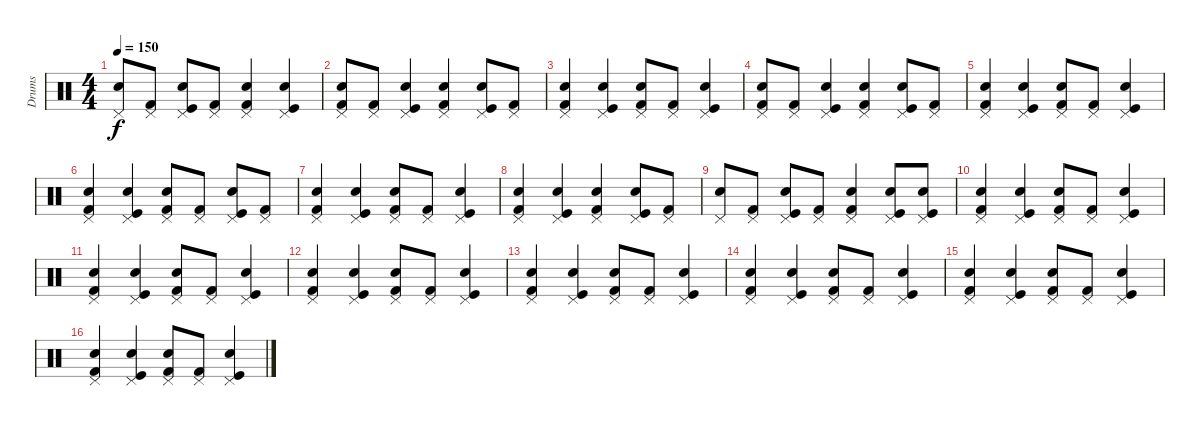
\track ("Drums" "Drums") {instrument percussion}
\staff {score}
\articulation defaults
\ts (4 4)
\tempo 150
\clef neutral
\ks c
("Electric Snare (hit)" "Pedal Hi-Hat (hit)").8{dy f} ("Kick (hit) 2" "Pedal Hi-Hat (hit)").8 ("Kick (hit)" "Electric Snare (hit)" "Pedal Hi-Hat (hit)").8 ("Kick (hit) 2" "Pedal Hi-Hat (hit)").8 ("Kick (hit) 2" "Electric Snare (hit)" "Pedal Hi-Hat (hit)").4 ("Kick (hit)" "Electric Snare (hit)" "Pedal Hi-Hat (hit)").4 |
("Kick (hit) 2" "Electric Snare (hit)" "Pedal Hi-Hat (hit)").8 ("Kick (hit) 2" "Pedal Hi-Hat (hit)").8 ("Kick (hit)" "Electric Snare (hit)" "Pedal Hi-Hat (hit)").4 ("Kick (hit) 2" "Electric Snare (hit)" "Pedal Hi-Hat (hit)").4 ("Kick (hit)" "Electric Snare (hit)" "Pedal Hi-Hat (hit)").8 ("Kick (hit) 2" "Pedal Hi-Hat (hit)").8 |
("Kick (hit) 2" "Electric Snare (hit)" "Pedal Hi-Hat (hit)").4 ("Kick (hit)" "Electric Snare (hit)" "Pedal Hi-Hat (hit)").4 ("Kick (hit) 2" "Electric Snare (hit)" "Pedal Hi-Hat (hit)").8 ("Kick (hit) 2" "Pedal Hi-Hat (hit)").8 ("Kick (hit)" "Electric Snare (hit)" "Pedal Hi-Hat (hit)").4 |
("Kick (hit) 2" "Electric Snare (hit)" "Pedal Hi-Hat (hit)").8 ("Kick (hit) 2" "Pedal Hi-Hat (hit)").8 ("Kick (hit)" "Electric Snare (hit)" "Pedal Hi-Hat (hit)").4 ("Kick (hit) 2" "Electric Snare (hit)" "Pedal Hi-Hat (hit)").4 ("Kick (hit)" "Electric Snare (hit)" "Pedal Hi-Hat (hit)").8 ("Kick (hit) 2" "Pedal Hi-Hat (hit)").8 |
("Kick (hit) 2" "Electric Snare (hit)" "Pedal Hi-Hat (hit)").4 ("Kick (hit)" "Electric Snare (hit)" "Pedal Hi-Hat (hit)").4 ("Kick (hit) 2" "Electric Snare (hit)" "Pedal Hi-Hat (hit)").8 ("Kick (hit) 2" "Pedal Hi-Hat (hit)").8 ("Kick (hit)" "Electric Snare (hit)" "Pedal Hi-Hat (hit)").4 |
("Kick (hit) 2" "Electric Snare (hit)" "Pedal Hi-Hat (hit)").4 ("Kick (hit)" "Electric Snare (hit)" "Pedal Hi-Hat (hit)").4 ("Kick (hit) 2" "Electric Snare (hit)" "Pedal Hi-Hat (hit)").8 ("Kick (hit) 2" "Pedal Hi-Hat (hit)").8 ("Kick (hit)" "Electric Snare (hit)" "Pedal Hi-Hat (hit)").8 ("Kick (hit) 2" "Pedal Hi-Hat (hit)").8 |
("Kick (hit) 2" "Electric Snare (hit)" "Pedal Hi-Hat (hit)").4 ("Kick (hit)" "Electric Snare (hit)" "Pedal Hi-Hat (hit)").4 ("Kick (hit) 2" "Electric Snare (hit)" "Pedal Hi-Hat (hit)").8 ("Kick (hit) 2" "Pedal Hi-Hat (hit)").8 ("Kick (hit)" "Electric Snare (hit)" "Pedal Hi-Hat (hit)").4 |
("Kick (hit) 2" "Electric Snare (hit)" "Pedal Hi-Hat (hit)").4 ("Kick (hit)" "Electric Snare (hit)" "Pedal Hi-Hat (hit)").4 ("Kick (hit) 2" "Electric Snare (hit)" "Pedal Hi-Hat (hit)").4 ("Kick (hit)" "Electric Snare (hit)" "Pedal Hi-Hat (hit)").8 ("Kick (hit) 2" "Pedal Hi-Hat (hit)").8 |
("Electric Snare (hit)" "Pedal Hi-Hat (hit)").8 ("Kick (hit) 2" "Pedal Hi-Hat (hit)").8 ("Kick (hit)" "Electric Snare (hit)" "Pedal Hi-Hat (hit)").8 ("Kick (hit) 2" "Pedal Hi-Hat (hit)").8 ("Kick (hit) 2" "Electric Snare (hit)" "Pedal Hi-Hat (hit)").4 ("Kick (hit)" "Electric Snare (hit)" "Pedal Hi-Hat (hit)").8 ("Kick (hit)" "Electric Snare (hit)" "Pedal Hi-Hat (hit)").8 |
("Kick (hit) 2" "Electric Snare (hit)" "Pedal Hi-Hat (hit)").4 ("Kick (hit)" "Electric Snare (hit)" "Pedal Hi-Hat (hit)").4 ("Kick (hit) 2" "Electric Snare (hit)" "Pedal Hi-Hat (hit)").8 ("Kick (hit) 2" "Pedal Hi-Hat (hit)").8 ("Kick (hit)" "Electric Snare (hit)" "Pedal Hi-Hat (hit)").4 |
("Kick (hit) 2" "Electric Snare (hit)" "Pedal Hi-Hat (hit)").4 ("Kick (hit)" "Electric Snare (hit)" "Pedal Hi-Hat (hit)").4 ("Kick (hit) 2" "Electric Snare (hit)" "Pedal Hi-Hat (hit)").8 ("Kick (hit) 2" "Pedal Hi-Hat (hit)").8 ("Kick (hit)" "Electric Snare (hit)" "Pedal Hi-Hat (hit)").4 |
("Kick (hit) 2" "Electric Snare (hit)" "Pedal Hi-Hat (hit)").4 ("Kick (hit)" "Electric Snare (hit)" "Pedal Hi-Hat (hit)").4 ("Kick (hit) 2" "Electric Snare (hit)" "Pedal Hi-Hat (hit)").8 ("Kick (hit) 2" "Pedal Hi-Hat (hit)").8 ("Kick (hit)" "Electric Snare (hit)" "Pedal Hi-Hat (hit)").4 |
("Kick (hit) 2" "Electric Snare (hit)" "Pedal Hi-Hat (hit)").4 ("Kick (hit)" "Electric Snare (hit)" "Pedal Hi-Hat (hit)").4 ("Kick (hit) 2" "Electric Snare (hit)" "Pedal Hi-Hat (hit)").8 ("Kick (hit) 2" "Pedal Hi-Hat (hit)").8 ("Kick (hit)" "Electric Snare (hit)" "Pedal Hi-Hat (hit)").4 |
("Kick (hit) 2" "Electric Snare (hit)" "Pedal Hi-Hat (hit)").4 ("Kick (hit)" "Electric Snare (hit)" "Pedal Hi-Hat (hit)").4 ("Kick (hit) 2" "Electric Snare (hit)" "Pedal Hi-Hat (hit)").8 ("Kick (hit) 2" "Pedal Hi-Hat (hit)").8 ("Kick (hit)" "Electric Snare (hit)" "Pedal Hi-Hat (hit)").4 |
("Kick (hit) 2" "Electric Snare (hit)" "Pedal Hi-Hat (hit)").4 ("Kick (hit)" "Electric Snare (hit)" "Pedal Hi-Hat (hit)").4 ("Kick (hit) 2" "Electric Snare (hit)" "Pedal Hi-Hat (hit)").8 ("Kick (hit) 2" "Pedal Hi-Hat (hit)").8 ("Kick (hit)" "Electric Snare (hit)" "Pedal Hi-Hat (hit)").4 |
("Kick (hit) 2" "Electric Snare (hit)" "Pedal Hi-Hat (hit)").4 ("Kick (hit)" "Electric Snare (hit)" "Pedal Hi-Hat (hit)").4 ("Kick (hit) 2" "Electric Snare (hit)" "Pedal Hi-Hat (hit)").8 ("Kick (hit) 2" "Pedal Hi-Hat (hit)").8 ("Kick (hit)" "Electric Snare (hit)" "Pedal Hi-Hat (hit)").4
